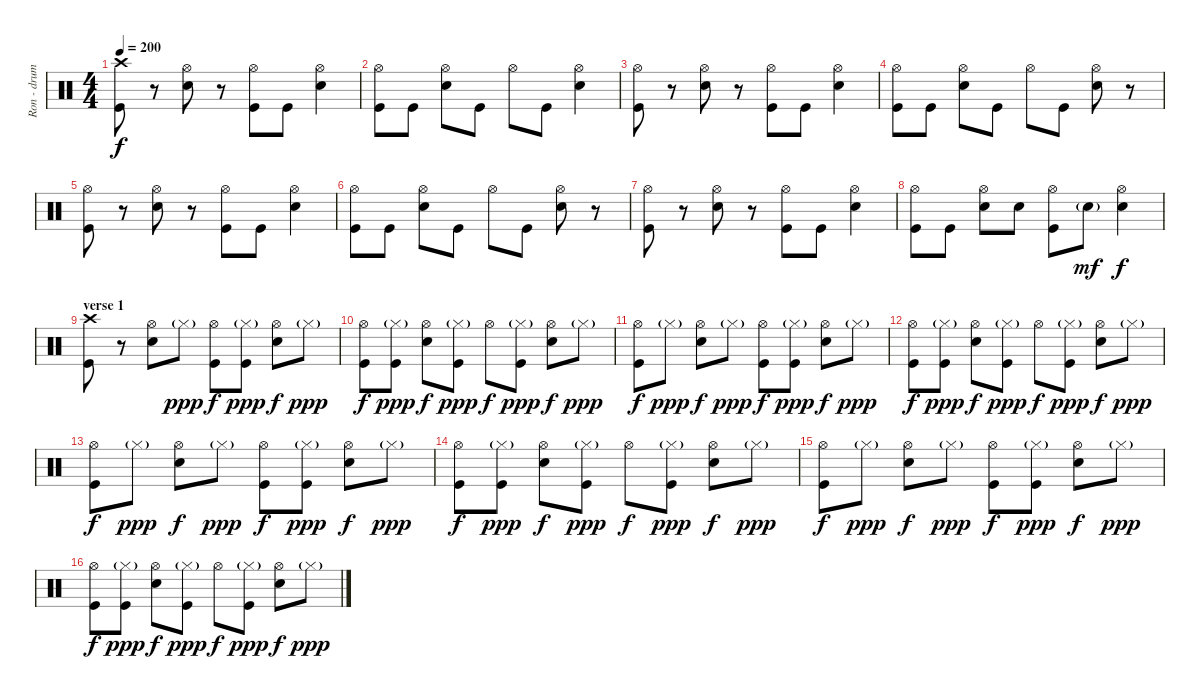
\track ("Ron - drums" "Ron - drum") {instrument percussion}
\staff {score}
\articulation defaults
\ts (4 4)
\tempo 200
\clef neutral
\ks c
("Crash high (hit)" "Kick (hit)").8{dy f} r.8 ("Hi-Hat (open)" "Snare (hit) 2").8 r.8 ("Hi-Hat (open)" "Kick (hit)").8 "Kick (hit)".8 ("Hi-Hat (open)" "Snare (hit) 2").4 |
("Hi-Hat (open)" "Kick (hit)").8 "Kick (hit)".8 ("Hi-Hat (open)" "Snare (hit) 2").8 "Kick (hit)".8 "Hi-Hat (open)".8 "Kick (hit)".8 ("Hi-Hat (open)" "Snare (hit) 2").4 |
("Hi-Hat (open)" "Kick (hit)").8 r.8 ("Hi-Hat (open)" "Snare (hit) 2").8 r.8 ("Hi-Hat (open)" "Kick (hit)").8 "Kick (hit)".8 ("Hi-Hat (open)" "Snare (hit) 2").4 |
("Hi-Hat (open)" "Kick (hit)").8 "Kick (hit)".8 ("Hi-Hat (open)" "Snare (hit) 2").8 "Kick (hit)".8 "Hi-Hat (open)".8 "Kick (hit)".8 ("Hi-Hat (open)" "Snare (hit) 2").8 r.8 |
("Hi-Hat (open)" "Kick (hit)").8 r.8 ("Hi-Hat (open)" "Snare (hit) 2").8 r.8 ("Hi-Hat (open)" "Kick (hit)").8 "Kick (hit)".8 ("Hi-Hat (open)" "Snare (hit) 2").4 |
("Hi-Hat (open)" "Kick (hit)").8 "Kick (hit)".8 ("Hi-Hat (open)" "Snare (hit) 2").8 "Kick (hit)".8 "Hi-Hat (open)".8 "Kick (hit)".8 ("Hi-Hat (open)" "Snare (hit) 2").8 r.8 |
("Hi-Hat (open)" "Kick (hit)").8 r.8 ("Hi-Hat (open)" "Snare (hit) 2").8 r.8 ("Hi-Hat (open)" "Kick (hit)").8 "Kick (hit)".8 ("Hi-Hat (open)" "Snare (hit) 2").4 |
("Hi-Hat (open)" "Kick (hit)").8 "Kick (hit)".8 ("Hi-Hat (open)" "Snare (hit) 2").8 "Snare (hit) 2".8 ("Hi-Hat (open)" "Kick (hit)").8 "Snare (hit) 2"{g}.8{dy mf} ("Hi-Hat (open)" "Snare (hit) 2").4{dy f} |
\section ("" "verse 1")
("Crash high (hit)" "Kick (hit)").8 r.8 ("Hi-Hat (open)" "Snare (hit) 2").8 "Hi-Hat (closed)"{g}.8{dy ppp} ("Hi-Hat (open)" "Kick (hit)").8{dy f} ("Hi-Hat (closed)"{g} "Kick (hit)").8{dy ppp} ("Hi-Hat (open)" "Snare (hit) 2").8{dy f} "Hi-Hat (closed)"{g}.8{dy ppp} |
("Hi-Hat (open)" "Kick (hit)").8{dy f} ("Hi-Hat (closed)"{g} "Kick (hit)").8{dy ppp} ("Hi-Hat (open)" "Snare (hit) 2").8{dy f} ("Hi-Hat (closed)"{g} "Kick (hit)").8{dy ppp} "Hi-Hat (open)".8{dy f} ("Hi-Hat (closed)"{g} "Kick (hit)").8{dy ppp} ("Hi-Hat (open)" "Snare (hit) 2").8{dy f} "Hi-Hat (closed)"{g}.8{dy ppp} |
("Hi-Hat (open)" "Kick (hit)").8{dy f} "Hi-Hat (closed)"{g}.8{dy ppp} ("Hi-Hat (open)" "Snare (hit) 2").8{dy f} "Hi-Hat (closed)"{g}.8{dy ppp} ("Hi-Hat (open)" "Kick (hit)").8{dy f} ("Hi-Hat (closed)"{g} "Kick (hit)").8{dy ppp} ("Hi-Hat (open)" "Snare (hit) 2").8{dy f} "Hi-Hat (closed)"{g}.8{dy ppp} |
("Hi-Hat (open)" "Kick (hit)").8{dy f} ("Hi-Hat (closed)"{g} "Kick (hit)").8{dy ppp} ("Hi-Hat (open)" "Snare (hit) 2").8{dy f} ("Hi-Hat (closed)"{g} "Kick (hit)").8{dy ppp} "Hi-Hat (open)".8{dy f} ("Hi-Hat (closed)"{g} "Kick (hit)").8{dy ppp} ("Hi-Hat (open)" "Snare (hit) 2").8{dy f} "Hi-Hat (closed)"{g}.8{dy ppp} |
("Hi-Hat (open)" "Kick (hit)").8{dy f} "Hi-Hat (closed)"{g}.8{dy ppp} ("Hi-Hat (open)" "Snare (hit) 2").8{dy f} "Hi-Hat (closed)"{g}.8{dy ppp} ("Hi-Hat (open)" "Kick (hit)").8{dy f} ("Hi-Hat (closed)"{g} "Kick (hit)").8{dy ppp} ("Hi-Hat (open)" "Snare (hit) 2").8{dy f} "Hi-Hat (closed)"{g}.8{dy ppp} |
("Hi-Hat (open)" "Kick (hit)").8{dy f} ("Hi-Hat (closed)"{g} "Kick (hit)").8{dy ppp} ("Hi-Hat (open)" "Snare (hit) 2").8{dy f} ("Hi-Hat (closed)"{g} "Kick (hit)").8{dy ppp} "Hi-Hat (open)".8{dy f} ("Hi-Hat (closed)"{g} "Kick (hit)").8{dy ppp} ("Hi-Hat (open)" "Snare (hit) 2").8{dy f} "Hi-Hat (closed)"{g}.8{dy ppp} |
("Hi-Hat (open)" "Kick (hit)").8{dy f} "Hi-Hat (closed)"{g}.8{dy ppp} ("Hi-Hat (open)" "Snare (hit) 2").8{dy f} "Hi-Hat (closed)"{g}.8{dy ppp} ("Hi-Hat (open)" "Kick (hit)").8{dy f} ("Hi-Hat (closed)"{g} "Kick (hit)").8{dy ppp} ("Hi-Hat (open)" "Snare (hit) 2").8{dy f} "Hi-Hat (closed)"{g}.8{dy ppp} |
("Hi-Hat (open)" "Kick (hit)").8{dy f} ("Hi-Hat (closed)"{g} "Kick (hit)").8{dy ppp} ("Hi-Hat (open)" "Snare (hit) 2").8{dy f} ("Hi-Hat (closed)"{g} "Kick (hit)").8{dy ppp} "Hi-Hat (open)".8{dy f} ("Hi-Hat (closed)"{g} "Kick (hit)").8{dy ppp} ("Hi-Hat (open)" "Snare (hit) 2").8{dy f} "Hi-Hat (closed)"{g}.8{dy ppp}
